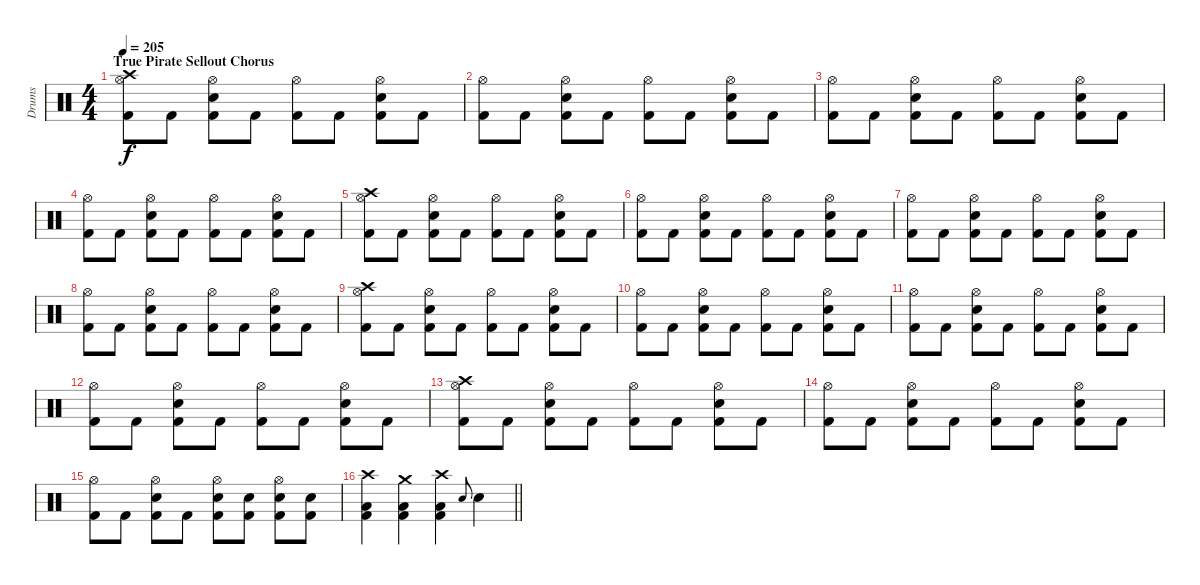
\track ("Drums" "Drums") {instrument percussion}
\staff {score}
\articulation defaults
\ts (4 4)
\section ("" "True Pirate Sellout Chorus")
\tempo 205
\clef neutral
\ks c
("Crash high (hit)" "Hi-Hat (open)" "Kick (hit) 2").8{dy f} "Kick (hit) 2".8 ("Hi-Hat (open)" "Snare (hit) 2" "Kick (hit) 2").8 "Kick (hit) 2".8 ("Hi-Hat (open)" "Kick (hit) 2").8 "Kick (hit) 2".8 ("Hi-Hat (open)" "Snare (hit) 2" "Kick (hit) 2").8 "Kick (hit) 2".8 |
("Hi-Hat (open)" "Kick (hit) 2").8 "Kick (hit) 2".8 ("Hi-Hat (open)" "Snare (hit) 2" "Kick (hit) 2").8 "Kick (hit) 2".8 ("Hi-Hat (open)" "Kick (hit) 2").8 "Kick (hit) 2".8 ("Hi-Hat (open)" "Snare (hit) 2" "Kick (hit) 2").8 "Kick (hit) 2".8 |
("Hi-Hat (open)" "Kick (hit) 2").8 "Kick (hit) 2".8 ("Hi-Hat (open)" "Snare (hit) 2" "Kick (hit) 2").8 "Kick (hit) 2".8 ("Hi-Hat (open)" "Kick (hit) 2").8 "Kick (hit) 2".8 ("Hi-Hat (open)" "Snare (hit) 2" "Kick (hit) 2").8 "Kick (hit) 2".8 |
("Hi-Hat (open)" "Kick (hit) 2").8 "Kick (hit) 2".8 ("Hi-Hat (open)" "Snare (hit) 2" "Kick (hit) 2").8 "Kick (hit) 2".8 ("Hi-Hat (open)" "Kick (hit) 2").8 "Kick (hit) 2".8 ("Hi-Hat (open)" "Snare (hit) 2" "Kick (hit) 2").8 "Kick (hit) 2".8 |
("Crash high (hit)" "Hi-Hat (open)" "Kick (hit) 2").8 "Kick (hit) 2".8 ("Hi-Hat (open)" "Snare (hit) 2" "Kick (hit) 2").8 "Kick (hit) 2".8 ("Hi-Hat (open)" "Kick (hit) 2").8 "Kick (hit) 2".8 ("Hi-Hat (open)" "Snare (hit) 2" "Kick (hit) 2").8 "Kick (hit) 2".8 |
("Hi-Hat (open)" "Kick (hit) 2").8 "Kick (hit) 2".8 ("Hi-Hat (open)" "Snare (hit) 2" "Kick (hit) 2").8 "Kick (hit) 2".8 ("Hi-Hat (open)" "Kick (hit) 2").8 "Kick (hit) 2".8 ("Hi-Hat (open)" "Snare (hit) 2" "Kick (hit) 2").8 "Kick (hit) 2".8 |
("Hi-Hat (open)" "Kick (hit) 2").8 "Kick (hit) 2".8 ("Hi-Hat (open)" "Snare (hit) 2" "Kick (hit) 2").8 "Kick (hit) 2".8 ("Hi-Hat (open)" "Kick (hit) 2").8 "Kick (hit) 2".8 ("Hi-Hat (open)" "Snare (hit) 2" "Kick (hit) 2").8 "Kick (hit) 2".8 |
("Hi-Hat (open)" "Kick (hit) 2").8 "Kick (hit) 2".8 ("Hi-Hat (open)" "Snare (hit) 2" "Kick (hit) 2").8 "Kick (hit) 2".8 ("Hi-Hat (open)" "Kick (hit) 2").8 "Kick (hit) 2".8 ("Hi-Hat (open)" "Snare (hit) 2" "Kick (hit) 2").8 "Kick (hit) 2".8 |
("Crash high (hit)" "Hi-Hat (open)" "Kick (hit) 2").8 "Kick (hit) 2".8 ("Hi-Hat (open)" "Snare (hit) 2" "Kick (hit) 2").8 "Kick (hit) 2".8 ("Hi-Hat (open)" "Kick (hit) 2").8 "Kick (hit) 2".8 ("Hi-Hat (open)" "Snare (hit) 2" "Kick (hit) 2").8 "Kick (hit) 2".8 |
("Hi-Hat (open)" "Kick (hit) 2").8 "Kick (hit) 2".8 ("Hi-Hat (open)" "Snare (hit) 2" "Kick (hit) 2").8 "Kick (hit) 2".8 ("Hi-Hat (open)" "Kick (hit) 2").8 "Kick (hit) 2".8 ("Hi-Hat (open)" "Snare (hit) 2" "Kick (hit) 2").8 "Kick (hit) 2".8 |
("Hi-Hat (open)" "Kick (hit) 2").8 "Kick (hit) 2".8 ("Hi-Hat (open)" "Snare (hit) 2" "Kick (hit) 2").8 "Kick (hit) 2".8 ("Hi-Hat (open)" "Kick (hit) 2").8 "Kick (hit) 2".8 ("Hi-Hat (open)" "Snare (hit) 2" "Kick (hit) 2").8 "Kick (hit) 2".8 |
("Hi-Hat (open)" "Kick (hit) 2").8 "Kick (hit) 2".8 ("Hi-Hat (open)" "Snare (hit) 2" "Kick (hit) 2").8 "Kick (hit) 2".8 ("Hi-Hat (open)" "Kick (hit) 2").8 "Kick (hit) 2".8 ("Hi-Hat (open)" "Snare (hit) 2" "Kick (hit) 2").8 "Kick (hit) 2".8 |
("Crash high (hit)" "Hi-Hat (open)" "Kick (hit) 2").8 "Kick (hit) 2".8 ("Hi-Hat (open)" "Snare (hit) 2" "Kick (hit) 2").8 "Kick (hit) 2".8 ("Hi-Hat (open)" "Kick (hit) 2").8 "Kick (hit) 2".8 ("Hi-Hat (open)" "Snare (hit) 2" "Kick (hit) 2").8 "Kick (hit) 2".8 |
("Hi-Hat (open)" "Kick (hit) 2").8 "Kick (hit) 2".8 ("Hi-Hat (open)" "Snare (hit) 2" "Kick (hit) 2").8 "Kick (hit) 2".8 ("Hi-Hat (open)" "Kick (hit) 2").8 "Kick (hit) 2".8 ("Hi-Hat (open)" "Snare (hit) 2" "Kick (hit) 2").8 "Kick (hit) 2".8 |
("Hi-Hat (open)" "Kick (hit) 2").8 "Kick (hit) 2".8 ("Hi-Hat (open)" "Snare (hit) 2" "Kick (hit) 2").8 "Kick (hit) 2".8 ("Hi-Hat (open)" "Snare (hit) 2" "Kick (hit) 2").8 ("Snare (hit) 2" "Kick (hit) 2").8 ("Hi-Hat (open)" "Snare (hit) 2" "Kick (hit) 2").8 ("Snare (hit) 2" "Kick (hit) 2").8 |
\barLineRight lightlight
("Crash high (hit)" "Low Floor Tom (hit)" "Kick (hit) 2").4 ("Crash medium (hit)" "Low Floor Tom (hit)" "Kick (hit) 2").4 ("Crash high (hit)" "Low Floor Tom (hit)" "Kick (hit) 2").4 "Snare (hit) 2".8{gr onbeat} "Snare (hit) 2".4
